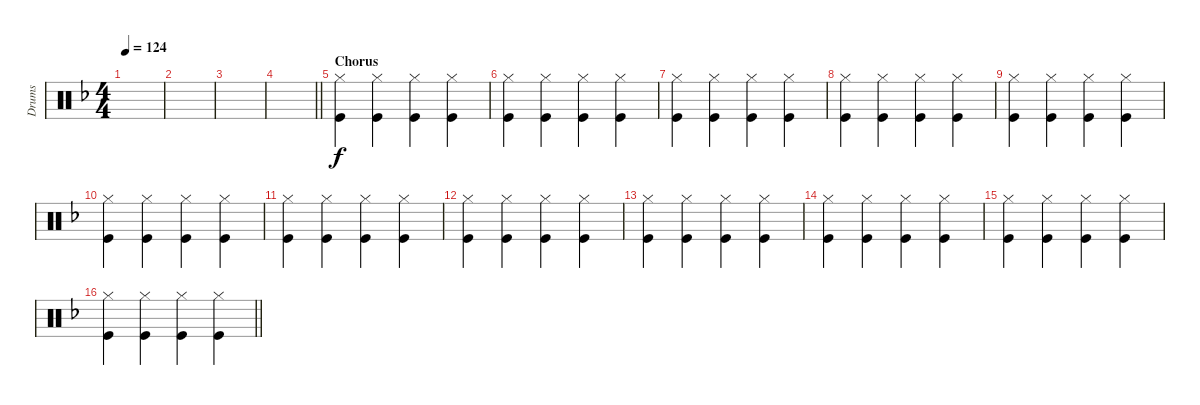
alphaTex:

\track ("Drums" "Drums") {instrument percussion}
\staff {score}
\articulation defaults
\ts (4 4)
\tempo 124
\clef neutral
\ks f
|
|
|
\barLineRight lightlight
|
\section ("" "Chorus")
("Hi-Hat (closed)" "Kick (hit)").4 ("Hi-Hat (closed)" "Kick (hit)").4 ("Hi-Hat (closed)" "Kick (hit)").4 ("Hi-Hat (closed)" "Kick (hit)").4 |
("Hi-Hat (closed)" "Kick (hit)").4 ("Hi-Hat (closed)" "Kick (hit)").4 ("Hi-Hat (closed)" "Kick (hit)").4 ("Hi-Hat (closed)" "Kick (hit)").4 |
("Hi-Hat (closed)" "Kick (hit)").4 ("Hi-Hat (closed)" "Kick (hit)").4 ("Hi-Hat (closed)" "Kick (hit)").4 ("Hi-Hat (closed)" "Kick (hit)").4 |
("Hi-Hat (closed)" "Kick (hit)").4 ("Hi-Hat (closed)" "Kick (hit)").4 ("Hi-Hat (closed)" "Kick (hit)").4 ("Hi-Hat (closed)" "Kick (hit)").4 |
("Hi-Hat (closed)" "Kick (hit)").4 ("Hi-Hat (closed)" "Kick (hit)").4 ("Hi-Hat (closed)" "Kick (hit)").4 ("Hi-Hat (closed)" "Kick (hit)").4 |
("Hi-Hat (closed)" "Kick (hit)").4 ("Hi-Hat (closed)" "Kick (hit)").4 ("Hi-Hat (closed)" "Kick (hit)").4 ("Hi-Hat (closed)" "Kick (hit)").4 |
("Hi-Hat (closed)" "Kick (hit)").4 ("Hi-Hat (closed)" "Kick (hit)").4 ("Hi-Hat (closed)" "Kick (hit)").4 ("Hi-Hat (closed)" "Kick (hit)").4 |
("Hi-Hat (closed)" "Kick (hit)").4 ("Hi-Hat (closed)" "Kick (hit)").4 ("Hi-Hat (closed)" "Kick (hit)").4 ("Hi-Hat (closed)" "Kick (hit)").4 |
("Hi-Hat (closed)" "Kick (hit)").4 ("Hi-Hat (closed)" "Kick (hit)").4 ("Hi-Hat (closed)" "Kick (hit)").4 ("Hi-Hat (closed)" "Kick (hit)").4 |
("Hi-Hat (closed)" "Kick (hit)").4 ("Hi-Hat (closed)" "Kick (hit)").4 ("Hi-Hat (closed)" "Kick (hit)").4 ("Hi-Hat (closed)" "Kick (hit)").4 |
("Hi-Hat (closed)" "Kick (hit)").4 ("Hi-Hat (closed)" "Kick (hit)").4 ("Hi-Hat (closed)" "Kick (hit)").4 ("Hi-Hat (closed)" "Kick (hit)").4 |
\barLineRight lightlight
("Hi-Hat (closed)" "Kick (hit)").4 ("Hi-Hat (closed)" "Kick (hit)").4 ("Hi-Hat (closed)" "Kick (hit)").4 ("Hi-Hat (closed)" "Kick (hit)").4
